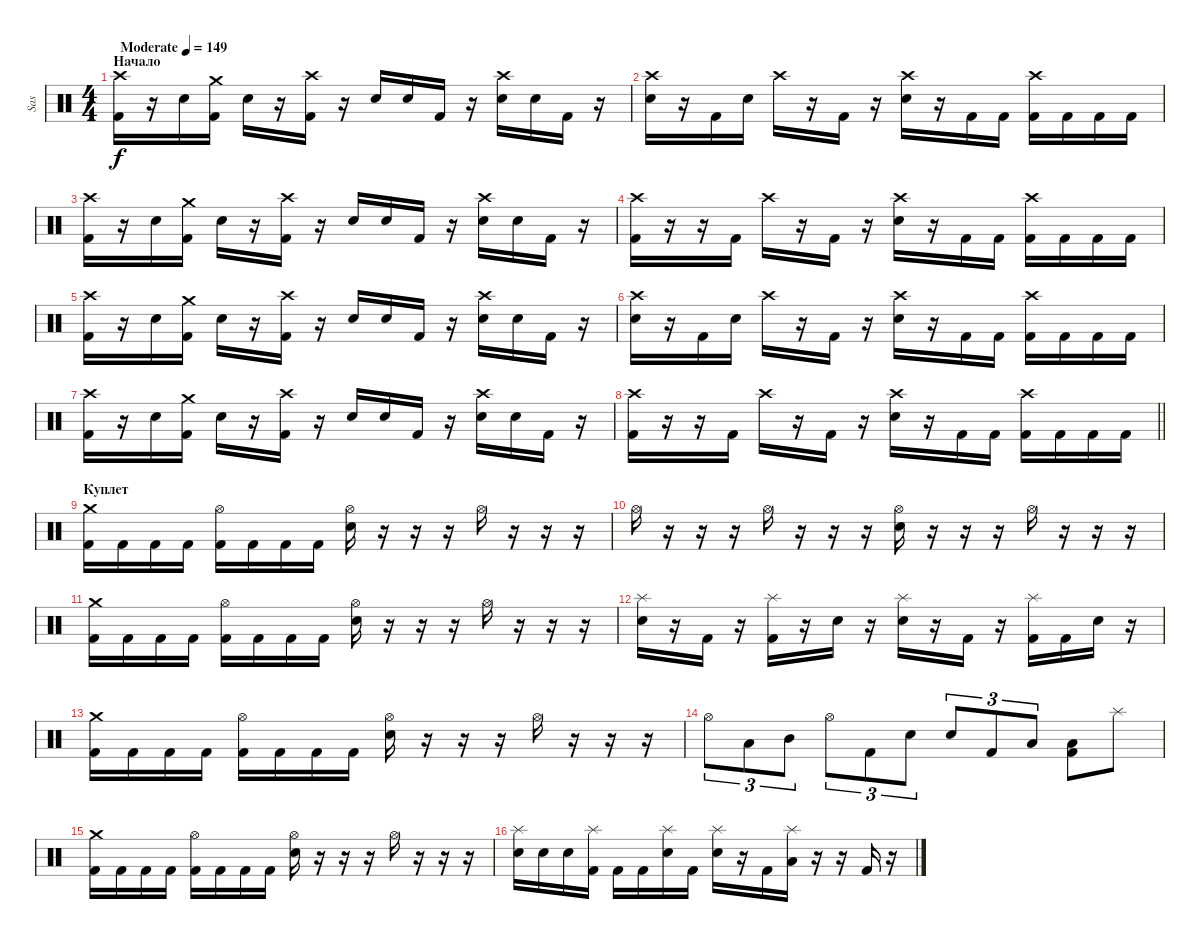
\track ("Sas" "Sas") {instrument percussion}
\staff {score}
\articulation defaults
\ts (4 4)
\section ("" "Начало")
\tempo (149 "Moderate")
\clef neutral
\ks c
("Crash high (hit)" "Kick (hit) 2").16{dy f} r.16 "Snare (hit) 2".16 ("Crash medium (hit)" "Kick (hit) 2").16 "Snare (hit) 2".16 r.16 ("Crash high (hit)" "Kick (hit) 2").16 r.16 "Snare (hit) 2".16 "Snare (hit) 2".16 "Kick (hit) 2".16 r.16 ("Crash high (hit)" "Snare (hit) 2").16 "Snare (hit) 2".16 "Kick (hit) 2".16 r.16 |
("Crash high (hit)" "Snare (hit) 2").16 r.16 "Kick (hit) 2".16 "Snare (hit) 2".16 "Crash high (hit)".16 r.16 "Kick (hit) 2".16 r.16 ("Crash high (hit)" "Snare (hit) 2").16 r.16 "Kick (hit) 2".16 "Kick (hit) 2".16 ("Crash high (hit)" "Kick (hit) 2").16 "Kick (hit) 2".16 "Kick (hit) 2".16 "Kick (hit) 2".16 |
("Crash high (hit)" "Kick (hit) 2").16 r.16 "Snare (hit) 2".16 ("Crash medium (hit)" "Kick (hit) 2").16 "Snare (hit) 2".16 r.16 ("Crash high (hit)" "Kick (hit) 2").16 r.16 "Snare (hit) 2".16 "Snare (hit) 2".16 "Kick (hit) 2".16 r.16 ("Crash high (hit)" "Snare (hit) 2").16 "Snare (hit) 2".16 "Kick (hit) 2".16 r.16 |
("Crash high (hit)" "Kick (hit) 2").16 r.16 r.16 "Kick (hit) 2".16 "Crash high (hit)".16 r.16 "Kick (hit) 2".16 r.16 ("Crash high (hit)" "Snare (hit) 2").16 r.16 "Kick (hit) 2".16 "Kick (hit) 2".16 ("Crash high (hit)" "Kick (hit) 2").16 "Kick (hit) 2".16 "Kick (hit) 2".16 "Kick (hit) 2".16 |
("Crash high (hit)" "Kick (hit) 2").16 r.16 "Snare (hit) 2".16 ("Crash medium (hit)" "Kick (hit) 2").16 "Snare (hit) 2".16 r.16 ("Crash high (hit)" "Kick (hit) 2").16 r.16 "Snare (hit) 2".16 "Snare (hit) 2".16 "Kick (hit) 2".16 r.16 ("Crash high (hit)" "Snare (hit) 2").16 "Snare (hit) 2".16 "Kick (hit) 2".16 r.16 |
("Crash high (hit)" "Snare (hit) 2").16 r.16 "Kick (hit) 2".16 "Snare (hit) 2".16 "Crash high (hit)".16 r.16 "Kick (hit) 2".16 r.16 ("Crash high (hit)" "Snare (hit) 2").16 r.16 "Kick (hit) 2".16 "Kick (hit) 2".16 ("Crash high (hit)" "Kick (hit) 2").16 "Kick (hit) 2".16 "Kick (hit) 2".16 "Kick (hit) 2".16 |
("Crash high (hit)" "Kick (hit) 2").16 r.16 "Snare (hit) 2".16 ("Crash medium (hit)" "Kick (hit) 2").16 "Snare (hit) 2".16 r.16 ("Crash high (hit)" "Kick (hit) 2").16 r.16 "Snare (hit) 2".16 "Snare (hit) 2".16 "Kick (hit) 2".16 r.16 ("Crash high (hit)" "Snare (hit) 2").16 "Snare (hit) 2".16 "Kick (hit) 2".16 r.16 |
\barLineRight lightlight
("Crash high (hit)" "Kick (hit) 2").16 r.16 r.16 "Kick (hit) 2".16 "Crash high (hit)".16 r.16 "Kick (hit) 2".16 r.16 ("Crash high (hit)" "Snare (hit) 2").16 r.16 "Kick (hit) 2".16 "Kick (hit) 2".16 ("Crash high (hit)" "Kick (hit) 2").16 "Kick (hit) 2".16 "Kick (hit) 2".16 "Kick (hit) 2".16 |
\section ("" "Куплет")
("Crash medium (hit)" "Kick (hit) 2").16 "Kick (hit) 2".16 "Kick (hit) 2".16 "Kick (hit) 2".16 ("Hi-Hat (open)" "Kick (hit) 2").16 "Kick (hit) 2".16 "Kick (hit) 2".16 "Kick (hit) 2".16 ("Hi-Hat (open)" "Snare (hit) 2").16 r.16 r.16 r.16 "Hi-Hat (open)".16 r.16 r.16 r.16 |
"Hi-Hat (open)".16 r.16 r.16 r.16 "Hi-Hat (open)".16 r.16 r.16 r.16 ("Hi-Hat (open)" "Snare (hit) 2").16 r.16 r.16 r.16 "Hi-Hat (open)".16 r.16 r.16 r.16 |
("Crash medium (hit)" "Kick (hit) 2").16 "Kick (hit) 2".16 "Kick (hit) 2".16 "Kick (hit) 2".16 ("Hi-Hat (open)" "Kick (hit) 2").16 "Kick (hit) 2".16 "Kick (hit) 2".16 "Kick (hit) 2".16 ("Hi-Hat (open)" "Snare (hit) 2").16 r.16 r.16 r.16 "Hi-Hat (open)".16 r.16 r.16 r.16 |
("Splash (hit)" "Snare (hit) 2").16 r.16 "Kick (hit) 2".16 r.16 ("Splash (hit)" "Kick (hit) 2").16 r.16 "Snare (hit) 2".16 r.16 ("Splash (hit)" "Snare (hit) 2").16 r.16 "Kick (hit) 2".16 r.16 ("Splash (hit)" "Kick (hit) 2").16 "Kick (hit) 2".16 "Snare (hit) 2".16 r.16 |
("Crash medium (hit)" "Kick (hit) 2").16 "Kick (hit) 2".16 "Kick (hit) 2".16 "Kick (hit) 2".16 ("Hi-Hat (open)" "Kick (hit) 2").16 "Kick (hit) 2".16 "Kick (hit) 2".16 "Kick (hit) 2".16 ("Hi-Hat (open)" "Snare (hit) 2").16 r.16 r.16 r.16 "Hi-Hat (open)".16 r.16 r.16 r.16 |
"Hi-Hat (open)".8{tu (3 2)} "Low Tom (hit)".8{tu (3 2)} "Mid Tom (hit)".8{tu (3 2)} "Hi-Hat (open)".8{tu (3 2)} "Kick (hit) 2".8{tu (3 2)} "Snare (hit) 2".8{tu (3 2)} "Snare (hit) 2".8{tu (3 2)} "Kick (hit) 2".8{tu (3 2)} "Low Tom (hit)".8{tu (3 2)} ("Low Tom (hit)" "Kick (hit) 2").8 "Splash (hit)".8 |
("Crash medium (hit)" "Kick (hit) 2").16 "Kick (hit) 2".16 "Kick (hit) 2".16 "Kick (hit) 2".16 ("Hi-Hat (open)" "Kick (hit) 2").16 "Kick (hit) 2".16 "Kick (hit) 2".16 "Kick (hit) 2".16 ("Hi-Hat (open)" "Snare (hit) 2").16 r.16 r.16 r.16 "Hi-Hat (open)".16 r.16 r.16 r.16 |
("Splash (hit)" "Snare (hit) 2").16 "Snare (hit) 2".16 "Snare (hit) 2".16 ("Splash (hit)" "Kick (hit) 2").16 "Kick (hit) 2".16 "Kick (hit) 2".16 ("Splash (hit)" "Snare (hit) 2").16 "Kick (hit) 2".16 ("Splash (hit)" "Snare (hit) 2").16 r.16 "Kick (hit) 2".16 ("Splash (hit)" "Low Tom (hit)").16 r.16 r.16 "Kick (hit) 2".16 r.16
